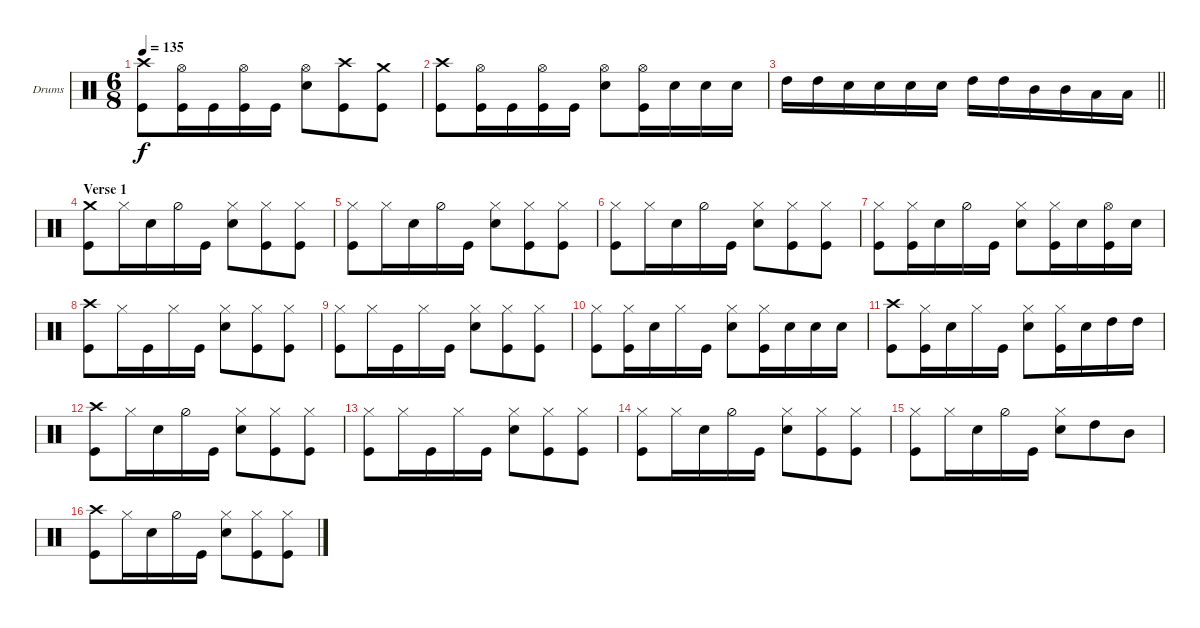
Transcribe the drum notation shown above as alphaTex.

\bracketExtendMode groupsimilarinstruments
\firstSystemTrackNameOrientation horizontal
\otherSystemsTrackNameOrientation horizontal
\track ("drums (Anton Zulganov)" "Drums") {instrument percussion}
\staff {score}
\articulation defaults
\ts (6 8)
\tempo 135
\clef neutral
\ks aminor
("Kick (hit)" "Crash high (hit)").8{dy f} ("Kick (hit)" "Hi-Hat (open)").16 "Kick (hit)".16 ("Kick (hit)" "Hi-Hat (open)").16 "Kick (hit)".16 ("Snare (hit) 2" "Hi-Hat (open)").8 ("Kick (hit)" "Crash high (hit)").8 ("Kick (hit)" "Crash medium (hit)").8 |
("Kick (hit)" "Crash high (hit)").8 ("Kick (hit)" "Hi-Hat (open)").16 "Kick (hit)".16 ("Kick (hit)" "Hi-Hat (open)").16 "Kick (hit)".16 ("Snare (hit) 2" "Hi-Hat (open)").8 ("Kick (hit)" "Hi-Hat (open)").16 "Snare (hit) 2".16 "Snare (hit) 2".16 "Snare (hit) 2".16 |
\barLineRight lightlight "High Tom (hit)".16 "High Tom (hit)".16 "Snare (hit) 2".16 "Snare (hit) 2".16 "Snare (hit) 2".16 "Snare (hit) 2".16 "High Tom (hit)".16 "High Tom (hit)".16 "Mid Tom (hit)".16 "Mid Tom (hit)".16 "Low Tom (hit)".16 "Low Tom (hit)".16
|
\section ("" "Verse 1")
("Kick (hit)" "Crash medium (hit)").8 "Hi-Hat (closed)".16 "Snare (hit) 2".16 "Hi-Hat (half)".16 "Kick (hit)".16 ("Snare (hit) 2" "Hi-Hat (closed)").8 ("Kick (hit)" "Hi-Hat (closed)").8 ("Kick (hit)" "Hi-Hat (closed)").8 |
("Kick (hit)" "Hi-Hat (closed)").8 "Hi-Hat (closed)".16 "Snare (hit) 2".16 "Hi-Hat (half)".16 "Kick (hit)".16 ("Snare (hit) 2" "Hi-Hat (closed)").8 ("Kick (hit)" "Hi-Hat (closed)").8 ("Kick (hit)" "Hi-Hat (closed)").8 |
("Kick (hit)" "Hi-Hat (closed)").8 "Hi-Hat (closed)".16 "Snare (hit) 2".16 "Hi-Hat (half)".16 "Kick (hit)".16 ("Snare (hit) 2" "Hi-Hat (closed)").8 ("Kick (hit)" "Hi-Hat (closed)").8 ("Kick (hit)" "Hi-Hat (closed)").8 |
("Kick (hit)" "Hi-Hat (closed)").8 ("Hi-Hat (closed)" "Kick (hit)").16 "Snare (hit) 2".16 "Hi-Hat (half)".16 "Kick (hit)".16 ("Snare (hit) 2" "Hi-Hat (closed)").8 ("Kick (hit)" "Hi-Hat (closed)").16 "Snare (hit) 2".16 ("Kick (hit)" "Hi-Hat (open)").16 "Snare (hit) 2".16 |
("Kick (hit)" "Crash high (hit)").8 "Hi-Hat (closed)".16 "Kick (hit)".16 "Hi-Hat (closed)".16 "Kick (hit)".16 ("Snare (hit) 2" "Hi-Hat (closed)").8 ("Kick (hit)" "Hi-Hat (closed)").8 ("Kick (hit)" "Hi-Hat (closed)").8 |
("Kick (hit)" "Hi-Hat (closed)").8 "Hi-Hat (closed)".16 "Kick (hit)".16 "Hi-Hat (closed)".16 "Kick (hit)".16 ("Snare (hit) 2" "Hi-Hat (closed)").8 ("Kick (hit)" "Hi-Hat (closed)").8 ("Kick (hit)" "Hi-Hat (closed)").8 |
("Kick (hit)" "Hi-Hat (closed)").8 ("Hi-Hat (closed)" "Kick (hit)").16 "Snare (hit) 2".16 "Hi-Hat (closed)".16 "Kick (hit)".16 ("Snare (hit) 2" "Hi-Hat (closed)").8 ("Kick (hit)" "Hi-Hat (closed)").16 "Snare (hit) 2".16 "Snare (hit) 2".16 "Snare (hit) 2".16 |
("Kick (hit)" "Crash high (hit)").8 ("Kick (hit)" "Hi-Hat (closed)").16 "Snare (hit) 2".16 "Hi-Hat (closed)".16 "Kick (hit)".16 ("Snare (hit) 2" "Hi-Hat (closed)").8 ("Kick (hit)" "Hi-Hat (closed)").16 "Snare (hit) 2".16 "High Tom (hit)".16 "High Tom (hit)".16 |
("Kick (hit)" "Crash high (hit)").8 "Hi-Hat (closed)".16 "Snare (hit) 2".16 "Hi-Hat (half)".16 "Kick (hit)".16 ("Snare (hit) 2" "Hi-Hat (closed)").8 ("Kick (hit)" "Hi-Hat (closed)").8 ("Kick (hit)" "Hi-Hat (closed)").8 |
("Kick (hit)" "Hi-Hat (closed)").8 "Hi-Hat (closed)".16 "Kick (hit)".16 "Hi-Hat (closed)".16 "Kick (hit)".16 ("Snare (hit) 2" "Hi-Hat (closed)").8 ("Kick (hit)" "Hi-Hat (closed)").8 ("Kick (hit)" "Hi-Hat (closed)").8 |
("Kick (hit)" "Hi-Hat (closed)").8 "Hi-Hat (closed)".16 "Snare (hit) 2".16 "Hi-Hat (half)".16 "Kick (hit)".16 ("Snare (hit) 2" "Hi-Hat (closed)").8 ("Kick (hit)" "Hi-Hat (closed)").8 ("Kick (hit)" "Hi-Hat (closed)").8 |
("Kick (hit)" "Hi-Hat (closed)").8 "Hi-Hat (closed)".16 "Snare (hit) 2".16 "Hi-Hat (half)".16 "Kick (hit)".16 ("Snare (hit) 2" "Hi-Hat (closed)").8 "High Tom (hit)".8 "Mid Tom (hit)".8 |
("Kick (hit)" "Crash high (hit)").8 "Hi-Hat (closed)".16 "Snare (hit) 2".16 "Hi-Hat (half)".16 "Kick (hit)".16 ("Snare (hit) 2" "Hi-Hat (closed)").8 ("Kick (hit)" "Hi-Hat (closed)").8 ("Kick (hit)" "Hi-Hat (closed)").8
